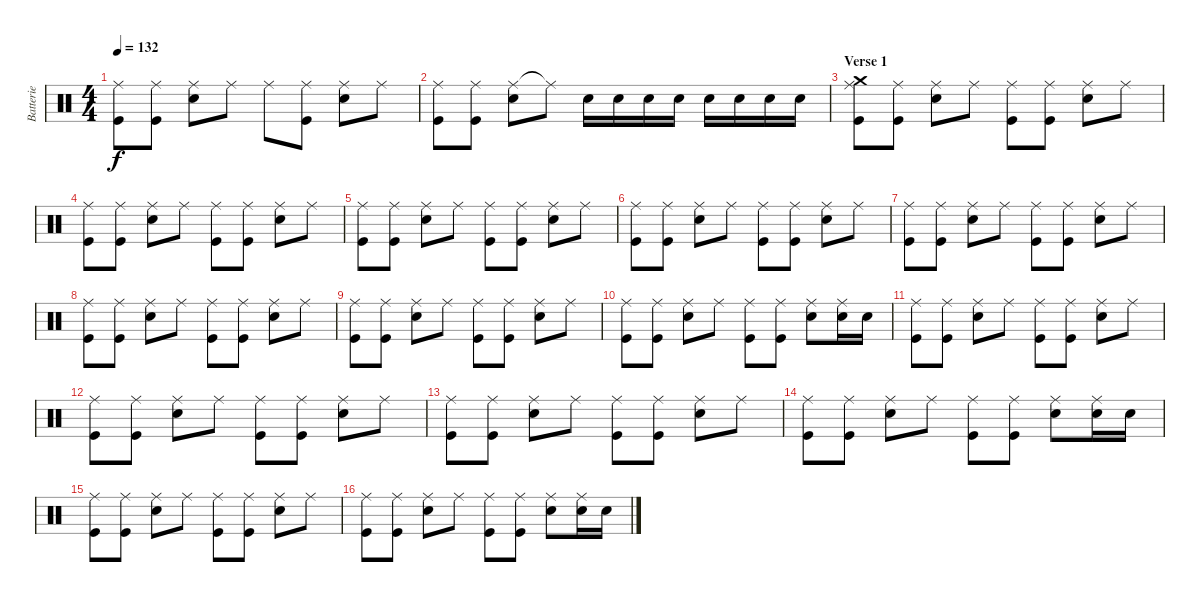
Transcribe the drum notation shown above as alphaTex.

\track ("Batterie" "Batterie") {instrument percussion}
\staff {score}
\articulation defaults
\ts (4 4)
\tempo 132
\clef neutral
\ks c
("Ride (middle)" "Kick (hit)").8{dy f} ("Ride (middle)" "Kick (hit)").8 ("Ride (middle)" "Snare (hit) 2").8 "Ride (middle)".8 "Ride (middle)".8 ("Ride (middle)" "Kick (hit)").8 ("Ride (middle)" "Snare (hit) 2").8 "Ride (middle)".8 |
("Ride (middle)" "Kick (hit)").8 ("Ride (middle)" "Kick (hit)").8 ("Ride (middle)" "Snare (hit) 2").8 "Ride (middle)"{t}.8 "Snare (hit) 2".16 "Snare (hit) 2".16 "Snare (hit) 2".16 "Snare (hit) 2".16 "Snare (hit) 2".16 "Snare (hit) 2".16 "Snare (hit) 2".16 "Snare (hit) 2".16 |
\section ("" "Verse 1")
("Ride (middle)" "Crash medium (hit)" "Kick (hit)").8 ("Ride (middle)" "Kick (hit)").8 ("Ride (middle)" "Snare (hit) 2").8 "Ride (middle)".8 ("Ride (middle)" "Kick (hit)").8 ("Ride (middle)" "Kick (hit)").8 ("Ride (middle)" "Snare (hit) 2").8 "Ride (middle)".8 |
("Ride (middle)" "Kick (hit)").8 ("Ride (middle)" "Kick (hit)").8 ("Ride (middle)" "Snare (hit) 2").8 "Ride (middle)".8 ("Ride (middle)" "Kick (hit)").8 ("Ride (middle)" "Kick (hit)").8 ("Ride (middle)" "Snare (hit) 2").8 "Ride (middle)".8 |
("Ride (middle)" "Kick (hit)").8 ("Ride (middle)" "Kick (hit)").8 ("Ride (middle)" "Snare (hit) 2").8 "Ride (middle)".8 ("Ride (middle)" "Kick (hit)").8 ("Ride (middle)" "Kick (hit)").8 ("Ride (middle)" "Snare (hit) 2").8 "Ride (middle)".8 |
("Ride (middle)" "Kick (hit)").8 ("Ride (middle)" "Kick (hit)").8 ("Ride (middle)" "Snare (hit) 2").8 "Ride (middle)".8 ("Ride (middle)" "Kick (hit)").8 ("Ride (middle)" "Kick (hit)").8 ("Ride (middle)" "Snare (hit) 2").8 "Ride (middle)".8 |
("Ride (middle)" "Kick (hit)").8 ("Ride (middle)" "Kick (hit)").8 ("Ride (middle)" "Snare (hit) 2").8 "Ride (middle)".8 ("Ride (middle)" "Kick (hit)").8 ("Ride (middle)" "Kick (hit)").8 ("Ride (middle)" "Snare (hit) 2").8 "Ride (middle)".8 |
("Ride (middle)" "Kick (hit)").8 ("Ride (middle)" "Kick (hit)").8 ("Ride (middle)" "Snare (hit) 2").8 "Ride (middle)".8 ("Ride (middle)" "Kick (hit)").8 ("Ride (middle)" "Kick (hit)").8 ("Ride (middle)" "Snare (hit) 2").8 "Ride (middle)".8 |
("Ride (middle)" "Kick (hit)").8 ("Ride (middle)" "Kick (hit)").8 ("Ride (middle)" "Snare (hit) 2").8 "Ride (middle)".8 ("Ride (middle)" "Kick (hit)").8 ("Ride (middle)" "Kick (hit)").8 ("Ride (middle)" "Snare (hit) 2").8 "Ride (middle)".8 |
("Ride (middle)" "Kick (hit)").8 ("Ride (middle)" "Kick (hit)").8 ("Ride (middle)" "Snare (hit) 2").8 "Ride (middle)".8 ("Ride (middle)" "Kick (hit)").8 ("Ride (middle)" "Kick (hit)").8 ("Ride (middle)" "Snare (hit) 2").8 ("Ride (middle)" "Snare (hit) 2").16 "Snare (hit) 2".16 |
("Ride (middle)" "Kick (hit)").8 ("Ride (middle)" "Kick (hit)").8 ("Ride (middle)" "Snare (hit) 2").8 "Ride (middle)".8 ("Ride (middle)" "Kick (hit)").8 ("Ride (middle)" "Kick (hit)").8 ("Ride (middle)" "Snare (hit) 2").8 "Ride (middle)".8 |
("Ride (middle)" "Kick (hit)").8 ("Ride (middle)" "Kick (hit)").8 ("Ride (middle)" "Snare (hit) 2").8 "Ride (middle)".8 ("Ride (middle)" "Kick (hit)").8 ("Ride (middle)" "Kick (hit)").8 ("Ride (middle)" "Snare (hit) 2").8 "Ride (middle)".8 |
("Ride (middle)" "Kick (hit)").8 ("Ride (middle)" "Kick (hit)").8 ("Ride (middle)" "Snare (hit) 2").8 "Ride (middle)".8 ("Ride (middle)" "Kick (hit)").8 ("Ride (middle)" "Kick (hit)").8 ("Ride (middle)" "Snare (hit) 2").8 "Ride (middle)".8 |
("Ride (middle)" "Kick (hit)").8 ("Ride (middle)" "Kick (hit)").8 ("Ride (middle)" "Snare (hit) 2").8 "Ride (middle)".8 ("Ride (middle)" "Kick (hit)").8 ("Ride (middle)" "Kick (hit)").8 ("Ride (middle)" "Snare (hit) 2").8 ("Ride (middle)" "Snare (hit) 2").16 "Snare (hit) 2".16 |
("Ride (middle)" "Kick (hit)").8 ("Ride (middle)" "Kick (hit)").8 ("Ride (middle)" "Snare (hit) 2").8 "Ride (middle)".8 ("Ride (middle)" "Kick (hit)").8 ("Ride (middle)" "Kick (hit)").8 ("Ride (middle)" "Snare (hit) 2").8 "Ride (middle)".8 |
("Ride (middle)" "Kick (hit)").8 ("Ride (middle)" "Kick (hit)").8 ("Ride (middle)" "Snare (hit) 2").8 "Ride (middle)".8 ("Ride (middle)" "Kick (hit)").8 ("Ride (middle)" "Kick (hit)").8 ("Ride (middle)" "Snare (hit) 2").8 ("Ride (middle)" "Snare (hit) 2").16 "Snare (hit) 2".16
